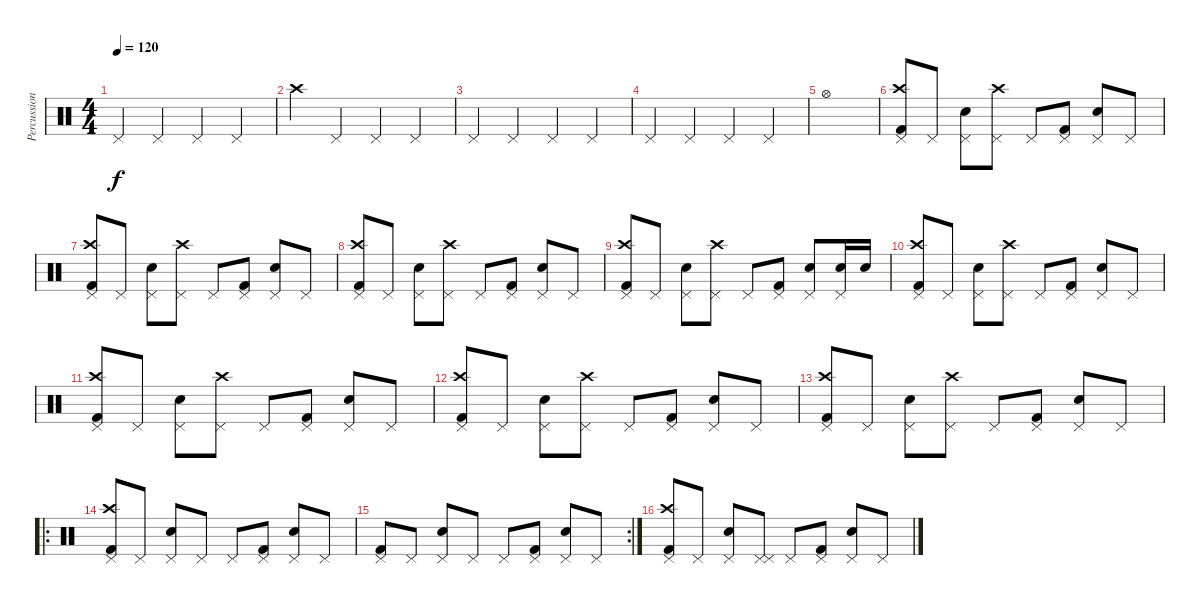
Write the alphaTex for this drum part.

\track ("Percussion" "Percussion") {instrument percussion}
\staff {score}
\articulation defaults
\ts (4 4)
\tempo 120
\clef neutral
\ks c "Pedal Hi-Hat (hit)".4{dy f} "Pedal Hi-Hat (hit)".4 "Pedal Hi-Hat (hit)".4 "Pedal Hi-Hat (hit)".4
|
"Crash high (hit)".4 "Pedal Hi-Hat (hit)".4 "Pedal Hi-Hat (hit)".4 "Pedal Hi-Hat (hit)".4 |
"Pedal Hi-Hat (hit)".4 "Pedal Hi-Hat (hit)".4 "Pedal Hi-Hat (hit)".4 "Pedal Hi-Hat (hit)".4 |
"Pedal Hi-Hat (hit)".4 "Pedal Hi-Hat (hit)".4 "Pedal Hi-Hat (hit)".4 "Pedal Hi-Hat (hit)".4 |
"Hi-Hat (open)".1 |
("Crash high (hit)" "Pedal Hi-Hat (hit)" "Kick (hit) 2").8 "Pedal Hi-Hat (hit)".8 ("Pedal Hi-Hat (hit)" "Electric Snare (hit)").8 ("Crash high (hit)" "Pedal Hi-Hat (hit)").8 "Pedal Hi-Hat (hit)".8 ("Pedal Hi-Hat (hit)" "Kick (hit) 2").8 ("Pedal Hi-Hat (hit)" "Electric Snare (hit)").8 "Pedal Hi-Hat (hit)".8 |
("Crash high (hit)" "Pedal Hi-Hat (hit)" "Kick (hit) 2").8 "Pedal Hi-Hat (hit)".8 ("Pedal Hi-Hat (hit)" "Electric Snare (hit)").8 ("Crash high (hit)" "Pedal Hi-Hat (hit)").8 "Pedal Hi-Hat (hit)".8 ("Pedal Hi-Hat (hit)" "Kick (hit) 2").8 ("Pedal Hi-Hat (hit)" "Electric Snare (hit)").8 "Pedal Hi-Hat (hit)".8 |
("Crash high (hit)" "Pedal Hi-Hat (hit)" "Kick (hit) 2").8 "Pedal Hi-Hat (hit)".8 ("Pedal Hi-Hat (hit)" "Electric Snare (hit)").8 ("Crash high (hit)" "Pedal Hi-Hat (hit)").8 "Pedal Hi-Hat (hit)".8 ("Pedal Hi-Hat (hit)" "Kick (hit) 2").8 ("Pedal Hi-Hat (hit)" "Electric Snare (hit)").8 "Pedal Hi-Hat (hit)".8 |
("Crash high (hit)" "Pedal Hi-Hat (hit)" "Kick (hit) 2").8 "Pedal Hi-Hat (hit)".8 ("Pedal Hi-Hat (hit)" "Electric Snare (hit)").8 ("Crash high (hit)" "Pedal Hi-Hat (hit)").8 "Pedal Hi-Hat (hit)".8 ("Pedal Hi-Hat (hit)" "Kick (hit) 2").8 ("Pedal Hi-Hat (hit)" "Electric Snare (hit)").8 ("Electric Snare (hit)" "Pedal Hi-Hat (hit)").16 "Electric Snare (hit)".16 |
("Crash high (hit)" "Pedal Hi-Hat (hit)" "Kick (hit) 2").8 "Pedal Hi-Hat (hit)".8 ("Pedal Hi-Hat (hit)" "Electric Snare (hit)").8 ("Crash high (hit)" "Pedal Hi-Hat (hit)").8 "Pedal Hi-Hat (hit)".8 ("Pedal Hi-Hat (hit)" "Kick (hit) 2").8 ("Pedal Hi-Hat (hit)" "Electric Snare (hit)").8 "Pedal Hi-Hat (hit)".8 |
("Crash high (hit)" "Pedal Hi-Hat (hit)" "Kick (hit) 2").8 "Pedal Hi-Hat (hit)".8 ("Pedal Hi-Hat (hit)" "Electric Snare (hit)").8 ("Crash high (hit)" "Pedal Hi-Hat (hit)").8 "Pedal Hi-Hat (hit)".8 ("Pedal Hi-Hat (hit)" "Kick (hit) 2").8 ("Pedal Hi-Hat (hit)" "Electric Snare (hit)").8 "Pedal Hi-Hat (hit)".8 |
("Crash high (hit)" "Pedal Hi-Hat (hit)" "Kick (hit) 2").8 "Pedal Hi-Hat (hit)".8 ("Pedal Hi-Hat (hit)" "Electric Snare (hit)").8 ("Crash high (hit)" "Pedal Hi-Hat (hit)").8 "Pedal Hi-Hat (hit)".8 ("Pedal Hi-Hat (hit)" "Kick (hit) 2").8 ("Pedal Hi-Hat (hit)" "Electric Snare (hit)").8 "Pedal Hi-Hat (hit)".8 |
("Crash high (hit)" "Pedal Hi-Hat (hit)" "Kick (hit) 2").8 "Pedal Hi-Hat (hit)".8 ("Pedal Hi-Hat (hit)" "Electric Snare (hit)").8 ("Crash high (hit)" "Pedal Hi-Hat (hit)").8 "Pedal Hi-Hat (hit)".8 ("Pedal Hi-Hat (hit)" "Kick (hit) 2").8 ("Pedal Hi-Hat (hit)" "Electric Snare (hit)").8 "Pedal Hi-Hat (hit)".8 |
\ro
("Crash high (hit)" "Pedal Hi-Hat (hit)" "Kick (hit) 2").8 "Pedal Hi-Hat (hit)".8 ("Pedal Hi-Hat (hit)" "Electric Snare (hit)").8 "Pedal Hi-Hat (hit)".8 "Pedal Hi-Hat (hit)".8 ("Pedal Hi-Hat (hit)" "Kick (hit) 2").8 ("Pedal Hi-Hat (hit)" "Electric Snare (hit)").8 "Pedal Hi-Hat (hit)".8 |
\rc 2
("Pedal Hi-Hat (hit)" "Kick (hit) 2").8 "Pedal Hi-Hat (hit)".8 ("Pedal Hi-Hat (hit)" "Electric Snare (hit)").8 "Pedal Hi-Hat (hit)".8 "Pedal Hi-Hat (hit)".8 ("Pedal Hi-Hat (hit)" "Kick (hit) 2").8 ("Pedal Hi-Hat (hit)" "Electric Snare (hit)").8 "Pedal Hi-Hat (hit)".8 |
("Crash high (hit)" "Pedal Hi-Hat (hit)" "Kick (hit) 2").8 "Pedal Hi-Hat (hit)".8 ("Pedal Hi-Hat (hit)" "Electric Snare (hit)").8 ("Pedal Hi-Hat (hit)" "Pedal Hi-Hat (hit)").8 "Pedal Hi-Hat (hit)".8 ("Pedal Hi-Hat (hit)" "Kick (hit) 2").8 ("Pedal Hi-Hat (hit)" "Electric Snare (hit)").8 "Pedal Hi-Hat (hit)".8
